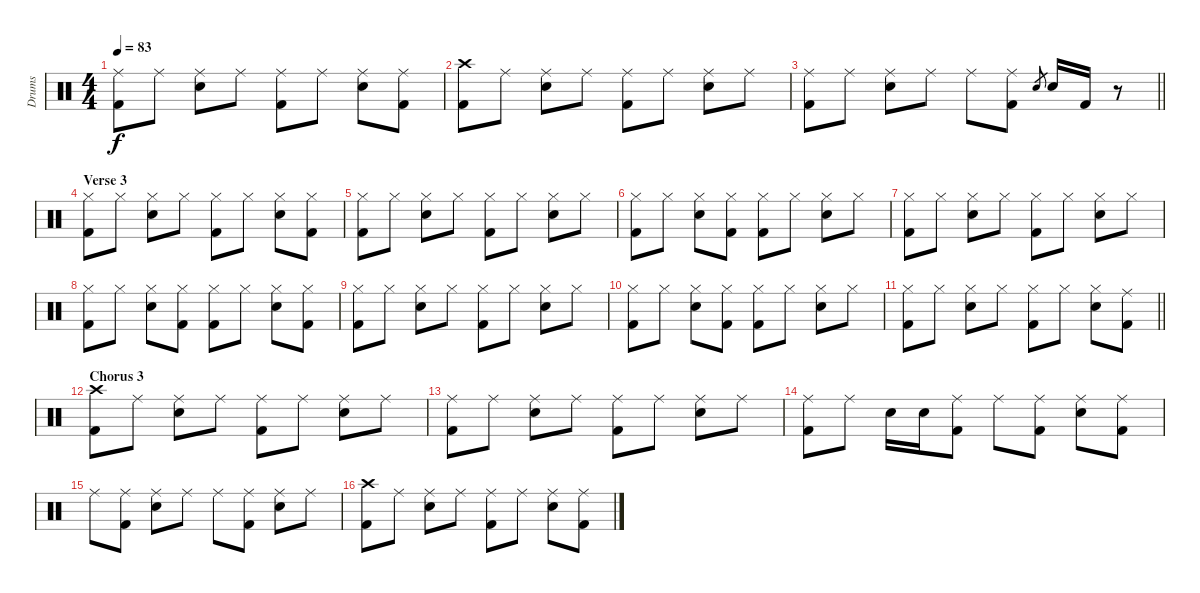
\track ("Drums" "Drums") {instrument percussion}
\staff {score}
\articulation defaults
\ts (4 4)
\tempo 83
\clef neutral
\ks c
("Ride (middle)" "Kick (hit) 2").8{dy f} "Ride (middle)".8 ("Ride (middle)" "Snare (hit) 2").8 "Ride (middle)".8 ("Ride (middle)" "Kick (hit) 2").8 "Ride (middle)".8 ("Ride (middle)" "Snare (hit) 2").8 ("Ride (middle)" "Kick (hit) 2").8 |
("Crash high (hit)" "Kick (hit) 2").8 "Ride (middle)".8 ("Ride (middle)" "Snare (hit) 2").8 "Ride (middle)".8 ("Ride (middle)" "Kick (hit) 2").8 "Ride (middle)".8 ("Ride (middle)" "Snare (hit) 2").8 "Ride (middle)".8 |
\barLineRight lightlight
("Ride (middle)" "Kick (hit) 2").8 "Ride (middle)".8 ("Ride (middle)" "Snare (hit) 2").8 "Ride (middle)".8 "Ride (middle)".8 ("Ride (middle)" "Kick (hit) 2").8 "Snare (hit) 2".8{gr} "Snare (hit) 2".16 "Kick (hit) 2".16 r.8 |
\section ("" "Verse 3")
("Hi-Hat (closed)" "Kick (hit) 2").8 "Hi-Hat (closed)".8 ("Hi-Hat (closed)" "Snare (hit) 2").8 "Hi-Hat (closed)".8 ("Hi-Hat (closed)" "Kick (hit) 2").8 "Hi-Hat (closed)".8 ("Hi-Hat (closed)" "Snare (hit) 2").8 ("Hi-Hat (closed)" "Kick (hit) 2").8 |
("Hi-Hat (closed)" "Kick (hit) 2").8 "Hi-Hat (closed)".8 ("Hi-Hat (closed)" "Snare (hit) 2").8 "Hi-Hat (closed)".8 ("Hi-Hat (closed)" "Kick (hit) 2").8 "Hi-Hat (closed)".8 ("Hi-Hat (closed)" "Snare (hit) 2").8 "Hi-Hat (closed)".8 |
("Hi-Hat (closed)" "Kick (hit) 2").8 "Hi-Hat (closed)".8 ("Hi-Hat (closed)" "Snare (hit) 2").8 ("Hi-Hat (closed)" "Kick (hit) 2").8 ("Hi-Hat (closed)" "Kick (hit) 2").8 "Hi-Hat (closed)".8 ("Hi-Hat (closed)" "Snare (hit) 2").8 "Hi-Hat (closed)".8 |
("Hi-Hat (closed)" "Kick (hit) 2").8 "Hi-Hat (closed)".8 ("Hi-Hat (closed)" "Snare (hit) 2").8 "Hi-Hat (closed)".8 ("Hi-Hat (closed)" "Kick (hit) 2").8 "Hi-Hat (closed)".8 ("Hi-Hat (closed)" "Snare (hit) 2").8 "Hi-Hat (closed)".8 |
("Hi-Hat (closed)" "Kick (hit) 2").8 "Hi-Hat (closed)".8 ("Hi-Hat (closed)" "Snare (hit) 2").8 ("Hi-Hat (closed)" "Kick (hit) 2").8 ("Hi-Hat (closed)" "Kick (hit) 2").8 "Hi-Hat (closed)".8 ("Hi-Hat (closed)" "Snare (hit) 2").8 ("Hi-Hat (closed)" "Kick (hit) 2").8 |
("Hi-Hat (closed)" "Kick (hit) 2").8 "Hi-Hat (closed)".8 ("Hi-Hat (closed)" "Snare (hit) 2").8 "Hi-Hat (closed)".8 ("Hi-Hat (closed)" "Kick (hit) 2").8 "Hi-Hat (closed)".8 ("Hi-Hat (closed)" "Snare (hit) 2").8 "Hi-Hat (closed)".8 |
("Hi-Hat (closed)" "Kick (hit) 2").8 "Hi-Hat (closed)".8 ("Hi-Hat (closed)" "Snare (hit) 2").8 ("Hi-Hat (closed)" "Kick (hit) 2").8 ("Hi-Hat (closed)" "Kick (hit) 2").8 "Hi-Hat (closed)".8 ("Hi-Hat (closed)" "Snare (hit) 2").8 "Hi-Hat (closed)".8 |
\barLineRight lightlight
("Hi-Hat (closed)" "Kick (hit) 2").8 "Hi-Hat (closed)".8 ("Hi-Hat (closed)" "Snare (hit) 2").8 "Hi-Hat (closed)".8 ("Hi-Hat (closed)" "Kick (hit) 2").8 "Hi-Hat (closed)".8 ("Hi-Hat (closed)" "Snare (hit) 2").8 ("Ride (middle)" "Kick (hit) 2").8 |
\section ("" "Chorus 3")
("Crash high (hit)" "Kick (hit) 2").8 "Ride (middle)".8 ("Ride (middle)" "Snare (hit) 2").8 "Ride (middle)".8 ("Ride (middle)" "Kick (hit) 2").8 "Ride (middle)".8 ("Ride (middle)" "Snare (hit) 2").8 "Ride (middle)".8 |
("Ride (middle)" "Kick (hit) 2").8 "Ride (middle)".8 ("Ride (middle)" "Snare (hit) 2").8 "Ride (middle)".8 ("Ride (middle)" "Kick (hit) 2").8 "Ride (middle)".8 ("Ride (middle)" "Snare (hit) 2").8 "Ride (middle)".8 |
("Ride (middle)" "Kick (hit) 2").8 "Ride (middle)".8 "Snare (hit) 2".16 "Snare (hit) 2".16 ("Ride (middle)" "Kick (hit) 2").8 "Ride (middle)".8 ("Ride (middle)" "Kick (hit) 2").8 ("Ride (middle)" "Snare (hit) 2").8 ("Ride (middle)" "Kick (hit) 2").8 |
"Ride (middle)".8 ("Ride (middle)" "Kick (hit) 2").8 ("Ride (middle)" "Snare (hit) 2").8 "Ride (middle)".8 "Ride (middle)".8 ("Ride (middle)" "Kick (hit) 2").8 ("Ride (middle)" "Snare (hit) 2").8 "Ride (middle)".8 |
("Crash high (hit)" "Kick (hit) 2").8 "Ride (middle)".8 ("Ride (middle)" "Snare (hit) 2").8 "Ride (middle)".8 ("Ride (middle)" "Kick (hit) 2").8 "Ride (middle)".8 ("Ride (middle)" "Snare (hit) 2").8 ("Ride (middle)" "Kick (hit) 2").8
